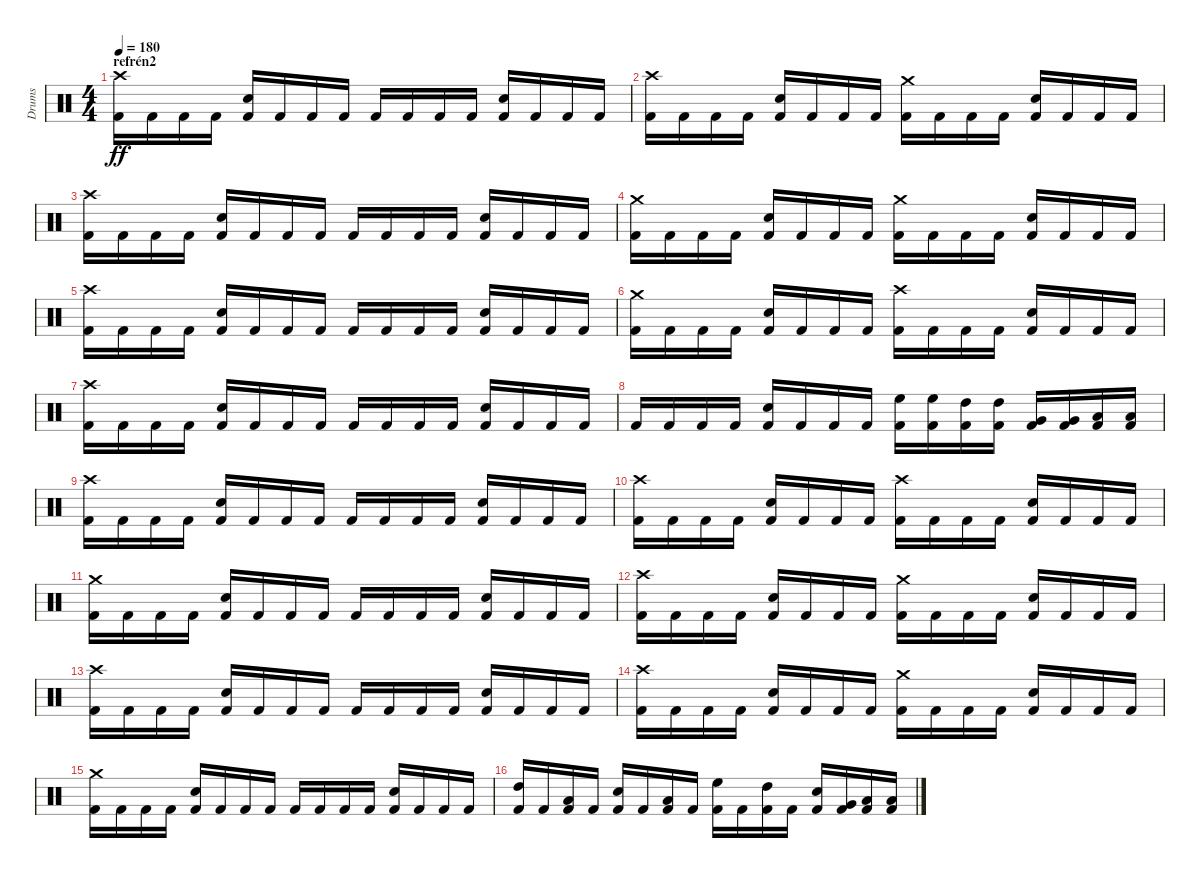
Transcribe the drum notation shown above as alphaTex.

\track ("Drums" "Drums") {instrument percussion}
\staff {score}
\articulation defaults
\ts (4 4)
\section ("" "refrén2")
\tempo 180
\clef neutral
\ks c
("Crash high (hit)" "Kick (hit) 2").16{dy ff} "Kick (hit) 2".16 "Kick (hit) 2".16 "Kick (hit) 2".16 ("Snare (hit) 2" "Kick (hit) 2").16 "Kick (hit) 2".16 "Kick (hit) 2".16 "Kick (hit) 2".16 "Kick (hit) 2".16 "Kick (hit) 2".16 "Kick (hit) 2".16 "Kick (hit) 2".16 ("Snare (hit) 2" "Kick (hit) 2").16 "Kick (hit) 2".16 "Kick (hit) 2".16 "Kick (hit) 2".16 |
("Crash high (hit)" "Kick (hit) 2").16 "Kick (hit) 2".16 "Kick (hit) 2".16 "Kick (hit) 2".16 ("Snare (hit) 2" "Kick (hit) 2").16 "Kick (hit) 2".16 "Kick (hit) 2".16 "Kick (hit) 2".16 ("Crash medium (hit)" "Kick (hit) 2").16 "Kick (hit) 2".16 "Kick (hit) 2".16 "Kick (hit) 2".16 ("Snare (hit) 2" "Kick (hit) 2").16 "Kick (hit) 2".16 "Kick (hit) 2".16 "Kick (hit) 2".16 |
("Crash high (hit)" "Kick (hit) 2").16 "Kick (hit) 2".16 "Kick (hit) 2".16 "Kick (hit) 2".16 ("Snare (hit) 2" "Kick (hit) 2").16 "Kick (hit) 2".16 "Kick (hit) 2".16 "Kick (hit) 2".16 "Kick (hit) 2".16 "Kick (hit) 2".16 "Kick (hit) 2".16 "Kick (hit) 2".16 ("Snare (hit) 2" "Kick (hit) 2").16 "Kick (hit) 2".16 "Kick (hit) 2".16 "Kick (hit) 2".16 |
("Crash medium (hit)" "Kick (hit) 2").16 "Kick (hit) 2".16 "Kick (hit) 2".16 "Kick (hit) 2".16 ("Snare (hit) 2" "Kick (hit) 2").16 "Kick (hit) 2".16 "Kick (hit) 2".16 "Kick (hit) 2".16 ("Crash medium (hit)" "Kick (hit) 2").16 "Kick (hit) 2".16 "Kick (hit) 2".16 "Kick (hit) 2".16 ("Snare (hit) 2" "Kick (hit) 2").16 "Kick (hit) 2".16 "Kick (hit) 2".16 "Kick (hit) 2".16 |
("Crash high (hit)" "Kick (hit) 2").16 "Kick (hit) 2".16 "Kick (hit) 2".16 "Kick (hit) 2".16 ("Snare (hit) 2" "Kick (hit) 2").16 "Kick (hit) 2".16 "Kick (hit) 2".16 "Kick (hit) 2".16 "Kick (hit) 2".16 "Kick (hit) 2".16 "Kick (hit) 2".16 "Kick (hit) 2".16 ("Snare (hit) 2" "Kick (hit) 2").16 "Kick (hit) 2".16 "Kick (hit) 2".16 "Kick (hit) 2".16 |
("Crash medium (hit)" "Kick (hit) 2").16 "Kick (hit) 2".16 "Kick (hit) 2".16 "Kick (hit) 2".16 ("Snare (hit) 2" "Kick (hit) 2").16 "Kick (hit) 2".16 "Kick (hit) 2".16 "Kick (hit) 2".16 ("Crash high (hit)" "Kick (hit) 2").16 "Kick (hit) 2".16 "Kick (hit) 2".16 "Kick (hit) 2".16 ("Snare (hit) 2" "Kick (hit) 2").16 "Kick (hit) 2".16 "Kick (hit) 2".16 "Kick (hit) 2".16 |
("Crash high (hit)" "Kick (hit) 2").16 "Kick (hit) 2".16 "Kick (hit) 2".16 "Kick (hit) 2".16 ("Snare (hit) 2" "Kick (hit) 2").16 "Kick (hit) 2".16 "Kick (hit) 2".16 "Kick (hit) 2".16 "Kick (hit) 2".16 "Kick (hit) 2".16 "Kick (hit) 2".16 "Kick (hit) 2".16 ("Snare (hit) 2" "Kick (hit) 2").16 "Kick (hit) 2".16 "Kick (hit) 2".16 "Kick (hit) 2".16 |
"Kick (hit) 2".16 "Kick (hit) 2".16 "Kick (hit) 2".16 "Kick (hit) 2".16 ("Snare (hit) 2" "Kick (hit) 2").16 "Kick (hit) 2".16 "Kick (hit) 2".16 "Kick (hit) 2".16 ("High Floor Tom (hit)" "Kick (hit) 2").16 ("High Floor Tom (hit)" "Kick (hit) 2").16 ("High Tom (hit)" "Kick (hit) 2").16 ("High Tom (hit)" "Kick (hit) 2").16 ("Very Low Tom (hit)" "Kick (hit) 2").16 ("Very Low Tom (hit)" "Kick (hit) 2").16 ("Low Floor Tom (hit)" "Kick (hit) 2").16 ("Low Floor Tom (hit)" "Kick (hit) 2").16 |
("Crash high (hit)" "Kick (hit) 2").16 "Kick (hit) 2".16 "Kick (hit) 2".16 "Kick (hit) 2".16 ("Snare (hit) 2" "Kick (hit) 2").16 "Kick (hit) 2".16 "Kick (hit) 2".16 "Kick (hit) 2".16 "Kick (hit) 2".16 "Kick (hit) 2".16 "Kick (hit) 2".16 "Kick (hit) 2".16 ("Snare (hit) 2" "Kick (hit) 2").16 "Kick (hit) 2".16 "Kick (hit) 2".16 "Kick (hit) 2".16 |
("Crash high (hit)" "Kick (hit) 2").16 "Kick (hit) 2".16 "Kick (hit) 2".16 "Kick (hit) 2".16 ("Snare (hit) 2" "Kick (hit) 2").16 "Kick (hit) 2".16 "Kick (hit) 2".16 "Kick (hit) 2".16 ("Crash high (hit)" "Kick (hit) 2").16 "Kick (hit) 2".16 "Kick (hit) 2".16 "Kick (hit) 2".16 ("Snare (hit) 2" "Kick (hit) 2").16 "Kick (hit) 2".16 "Kick (hit) 2".16 "Kick (hit) 2".16 |
("Crash medium (hit)" "Kick (hit) 2").16 "Kick (hit) 2".16 "Kick (hit) 2".16 "Kick (hit) 2".16 ("Snare (hit) 2" "Kick (hit) 2").16 "Kick (hit) 2".16 "Kick (hit) 2".16 "Kick (hit) 2".16 "Kick (hit) 2".16 "Kick (hit) 2".16 "Kick (hit) 2".16 "Kick (hit) 2".16 ("Snare (hit) 2" "Kick (hit) 2").16 "Kick (hit) 2".16 "Kick (hit) 2".16 "Kick (hit) 2".16 |
("Crash high (hit)" "Kick (hit) 2").16 "Kick (hit) 2".16 "Kick (hit) 2".16 "Kick (hit) 2".16 ("Snare (hit) 2" "Kick (hit) 2").16 "Kick (hit) 2".16 "Kick (hit) 2".16 "Kick (hit) 2".16 ("Crash medium (hit)" "Kick (hit) 2").16 "Kick (hit) 2".16 "Kick (hit) 2".16 "Kick (hit) 2".16 ("Snare (hit) 2" "Kick (hit) 2").16 "Kick (hit) 2".16 "Kick (hit) 2".16 "Kick (hit) 2".16 |
("Crash high (hit)" "Kick (hit) 2").16 "Kick (hit) 2".16 "Kick (hit) 2".16 "Kick (hit) 2".16 ("Snare (hit) 2" "Kick (hit) 2").16 "Kick (hit) 2".16 "Kick (hit) 2".16 "Kick (hit) 2".16 "Kick (hit) 2".16 "Kick (hit) 2".16 "Kick (hit) 2".16 "Kick (hit) 2".16 ("Snare (hit) 2" "Kick (hit) 2").16 "Kick (hit) 2".16 "Kick (hit) 2".16 "Kick (hit) 2".16 |
("Crash high (hit)" "Kick (hit) 2").16 "Kick (hit) 2".16 "Kick (hit) 2".16 "Kick (hit) 2".16 ("Snare (hit) 2" "Kick (hit) 2").16 "Kick (hit) 2".16 "Kick (hit) 2".16 "Kick (hit) 2".16 ("Crash medium (hit)" "Kick (hit) 2").16 "Kick (hit) 2".16 "Kick (hit) 2".16 "Kick (hit) 2".16 ("Snare (hit) 2" "Kick (hit) 2").16 "Kick (hit) 2".16 "Kick (hit) 2".16 "Kick (hit) 2".16 |
("Crash medium (hit)" "Kick (hit) 2").16 "Kick (hit) 2".16 "Kick (hit) 2".16 "Kick (hit) 2".16 ("Snare (hit) 2" "Kick (hit) 2").16 "Kick (hit) 2".16 "Kick (hit) 2".16 "Kick (hit) 2".16 "Kick (hit) 2".16 "Kick (hit) 2".16 "Kick (hit) 2".16 "Kick (hit) 2".16 ("Snare (hit) 2" "Kick (hit) 2").16 "Kick (hit) 2".16 "Kick (hit) 2".16 "Kick (hit) 2".16 |
("High Tom (hit)" "Kick (hit) 2").16 "Kick (hit) 2".16 ("Low Tom (hit)" "Kick (hit) 2").16 "Kick (hit) 2".16 ("Snare (hit) 2" "Kick (hit) 2").16 "Kick (hit) 2".16 ("Low Tom (hit)" "Kick (hit) 2").16 "Kick (hit) 2".16 ("High Floor Tom (hit)" "Kick (hit) 2").16 "Kick (hit) 2".16 ("High Tom (hit)" "Kick (hit) 2").16 "Kick (hit) 2".16 ("Snare (hit) 2" "Kick (hit) 2").16 ("Very Low Tom (hit)" "Kick (hit) 2").16 ("Low Floor Tom (hit)" "Kick (hit) 2").16 ("Low Floor Tom (hit)" "Kick (hit) 2").16
